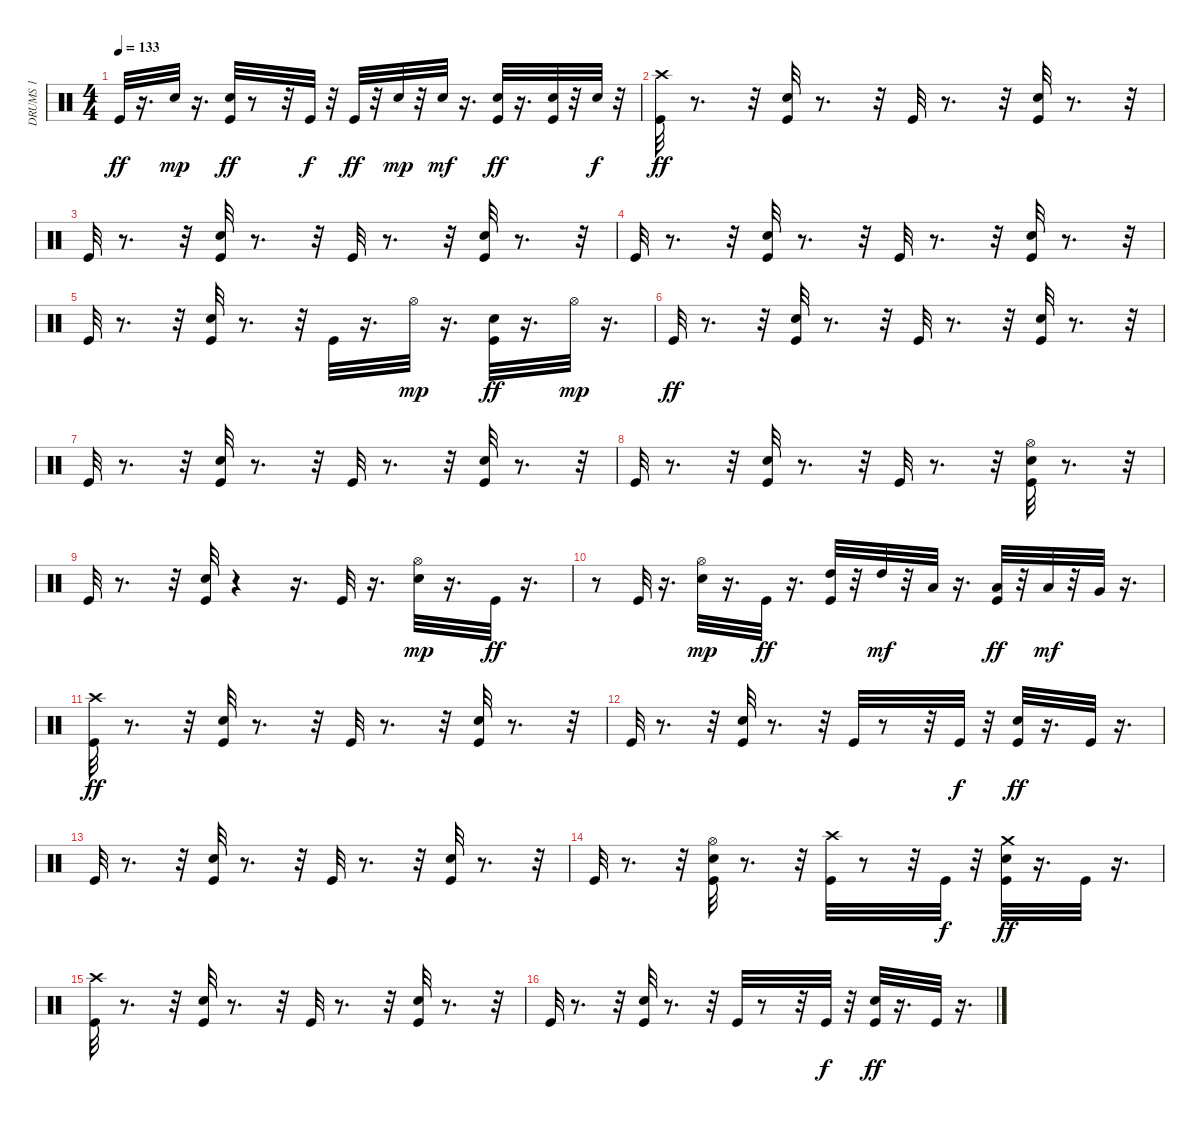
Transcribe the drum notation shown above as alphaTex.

\track ("DRUMS 1                             " "DRUMS 1   ") {instrument percussion}
\staff {score}
\articulation defaults
\ts (4 4)
\tempo 133
\clef neutral
\ks c "Kick (hit)".32{dy ff}
r.16{d} "Electric Snare (hit)".32{dy mp} r.16{d} ("Electric Snare (hit)" "Kick (hit)").32{dy ff} r.8 r.32 "Kick (hit)".32{dy f} r.32 "Kick (hit)".32{dy ff} r.32 "Electric Snare (hit)".32{dy mp} r.32 "Electric Snare (hit)".32{dy mf} r.16{d} ("Electric Snare (hit)" "Kick (hit)").32{dy ff} r.16{d} ("Electric Snare (hit)" "Kick (hit)").32 r.32 "Electric Snare (hit)".32{dy f} r.32 |
("Crash high (hit)" "Kick (hit)").32{dy ff} r.8{d} r.32 ("Electric Snare (hit)" "Kick (hit)").32 r.8{d} r.32 "Kick (hit)".32 r.8{d} r.32 ("Electric Snare (hit)" "Kick (hit)").32 r.8{d} r.32 |
"Kick (hit)".32 r.8{d} r.32 ("Electric Snare (hit)" "Kick (hit)").32 r.8{d} r.32 "Kick (hit)".32 r.8{d} r.32 ("Electric Snare (hit)" "Kick (hit)").32 r.8{d} r.32 |
"Kick (hit)".32 r.8{d} r.32 ("Electric Snare (hit)" "Kick (hit)").32 r.8{d} r.32 "Kick (hit)".32 r.8{d} r.32 ("Electric Snare (hit)" "Kick (hit)").32 r.8{d} r.32 |
"Kick (hit)".32 r.8{d} r.32 ("Electric Snare (hit)" "Kick (hit)").32 r.8{d} r.32 "Kick (hit)".32 r.16{d} "Hi-Hat (open)".32{dy mp} r.16{d} ("Electric Snare (hit)" "Kick (hit)").32{dy ff} r.16{d} "Hi-Hat (open)".32{dy mp} r.16{d} |
"Kick (hit)".32{dy ff} r.8{d} r.32 ("Electric Snare (hit)" "Kick (hit)").32 r.8{d} r.32 "Kick (hit)".32 r.8{d} r.32 ("Electric Snare (hit)" "Kick (hit)").32 r.8{d} r.32 |
"Kick (hit)".32 r.8{d} r.32 ("Electric Snare (hit)" "Kick (hit)").32 r.8{d} r.32 "Kick (hit)".32 r.8{d} r.32 ("Electric Snare (hit)" "Kick (hit)").32 r.8{d} r.32 |
"Kick (hit)".32 r.8{d} r.32 ("Electric Snare (hit)" "Kick (hit)").32 r.8{d} r.32 "Kick (hit)".32 r.8{d} r.32 ("Hi-Hat (open)" "Electric Snare (hit)" "Kick (hit)").32 r.8{d} r.32 |
"Kick (hit)".32 r.8{d} r.32 ("Electric Snare (hit)" "Kick (hit)").32 r.4 r.16{d} "Kick (hit)".32 r.16{d} ("Hi-Hat (open)" "Electric Snare (hit)").32{dy mp} r.16{d} "Kick (hit)".32{dy ff} r.16{d} |
r.8 "Kick (hit)".32 r.16{d} ("Hi-Hat (open)" "Electric Snare (hit)").32{dy mp} r.16{d} "Kick (hit)".32{dy ff} r.16{d} ("High Tom (hit)" "Kick (hit)").32 r.32 "High Tom (hit)".32{dy mf} r.32 "Low Tom (hit)".32 r.16{d} ("Low Tom (hit)" "Kick (hit)").32{dy ff} r.32 "Low Tom (hit)".32{dy mf} r.32 "Very Low Tom (hit)".32 r.16{d} |
("Crash high (hit)" "Kick (hit)").32{dy ff} r.8{d} r.32 ("Electric Snare (hit)" "Kick (hit)").32 r.8{d} r.32 "Kick (hit)".32 r.8{d} r.32 ("Electric Snare (hit)" "Kick (hit)").32 r.8{d} r.32 |
"Kick (hit)".32 r.8{d} r.32 ("Electric Snare (hit)" "Kick (hit)").32 r.8{d} r.32 "Kick (hit)".32 r.8 r.32 "Kick (hit)".32{dy f} r.32 ("Electric Snare (hit)" "Kick (hit)").32{dy ff} r.16{d} "Kick (hit)".32 r.16{d} |
"Kick (hit)".32 r.8{d} r.32 ("Electric Snare (hit)" "Kick (hit)").32 r.8{d} r.32 "Kick (hit)".32 r.8{d} r.32 ("Electric Snare (hit)" "Kick (hit)").32 r.8{d} r.32 |
"Kick (hit)".32 r.8{d} r.32 ("Hi-Hat (open)" "Electric Snare (hit)" "Kick (hit)").32 r.8{d} r.32 ("Crash high (hit)" "Kick (hit)").32 r.8 r.32 "Kick (hit)".32{dy f} r.32 ("Crash medium (hit)" "Electric Snare (hit)" "Kick (hit)").32{dy ff} r.16{d} "Kick (hit)".32 r.16{d} |
("Crash high (hit)" "Kick (hit)").32 r.8{d} r.32 ("Electric Snare (hit)" "Kick (hit)").32 r.8{d} r.32 "Kick (hit)".32 r.8{d} r.32 ("Electric Snare (hit)" "Kick (hit)").32 r.8{d} r.32 |
"Kick (hit)".32 r.8{d} r.32 ("Electric Snare (hit)" "Kick (hit)").32 r.8{d} r.32 "Kick (hit)".32 r.8 r.32 "Kick (hit)".32{dy f} r.32 ("Electric Snare (hit)" "Kick (hit)").32{dy ff} r.16{d} "Kick (hit)".32 r.16{d}
